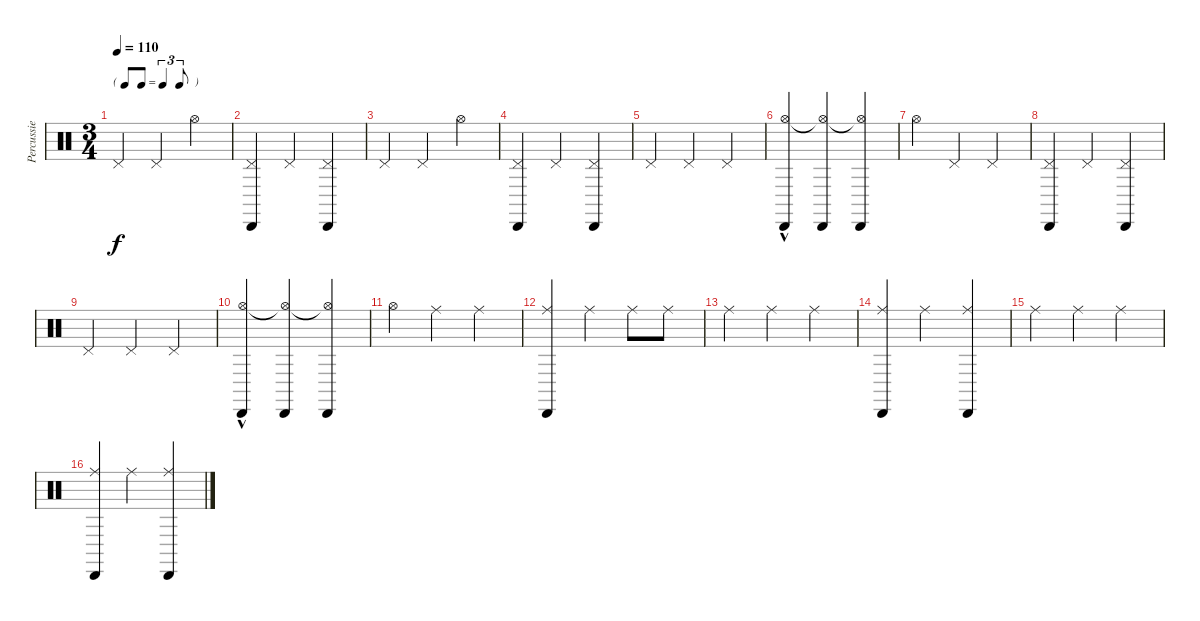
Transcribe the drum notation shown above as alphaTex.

\track ("Percussie" "Percussie") {instrument percussion}
\staff {score}
\articulation defaults
\ts (3 4)
\tf triplet8th
\tempo 110
\clef neutral
\ks c "Pedal Hi-Hat (hit)".4{dy f} "Pedal Hi-Hat (hit)".4 "Hi-Hat (open)".4
|
("Cabasa (hit)" "Pedal Hi-Hat (hit)").4 "Pedal Hi-Hat (hit)".4 ("Cabasa (hit)" "Pedal Hi-Hat (hit)").4 |
"Pedal Hi-Hat (hit)".4 "Pedal Hi-Hat (hit)".4 "Hi-Hat (open)".4 |
("Cabasa (hit)" "Pedal Hi-Hat (hit)").4 "Pedal Hi-Hat (hit)".4 ("Cabasa (hit)" "Pedal Hi-Hat (hit)").4 |
"Pedal Hi-Hat (hit)".4 "Pedal Hi-Hat (hit)".4 "Pedal Hi-Hat (hit)".4 |
("Hi-Hat (open)"{hac} "Cabasa (hit)").4 ("Hi-Hat (open)"{t} "Cabasa (hit)").4 ("Hi-Hat (open)"{t} "Cabasa (hit)").4 |
"Hi-Hat (open)".4 "Pedal Hi-Hat (hit)".4 "Pedal Hi-Hat (hit)".4 |
("Cabasa (hit)" "Pedal Hi-Hat (hit)").4 "Pedal Hi-Hat (hit)".4 ("Cabasa (hit)" "Pedal Hi-Hat (hit)").4 |
"Pedal Hi-Hat (hit)".4 "Pedal Hi-Hat (hit)".4 "Pedal Hi-Hat (hit)".4 |
("Hi-Hat (open)"{hac} "Cabasa (hit)").4 ("Hi-Hat (open)"{t} "Cabasa (hit)").4 ("Hi-Hat (open)"{t} "Cabasa (hit)").4 |
"Hi-Hat (open)".4 "Ride (middle)".4 "Ride (middle)".4 |
("Cabasa (hit)" "Ride (middle)").4 "Ride (middle)".4 "Ride (middle)".8 "Ride (middle)".8 |
"Ride (middle)".4 "Ride (middle)".4 "Ride (middle)".4 |
("Cabasa (hit)" "Ride (middle)").4 "Ride (middle)".4 ("Cabasa (hit)" "Ride (middle)").4 |
"Ride (middle)".4 "Ride (middle)".4 "Ride (middle)".4 |
("Cabasa (hit)" "Ride (middle)").4 "Ride (middle)".4 ("Cabasa (hit)" "Ride (middle)").4
